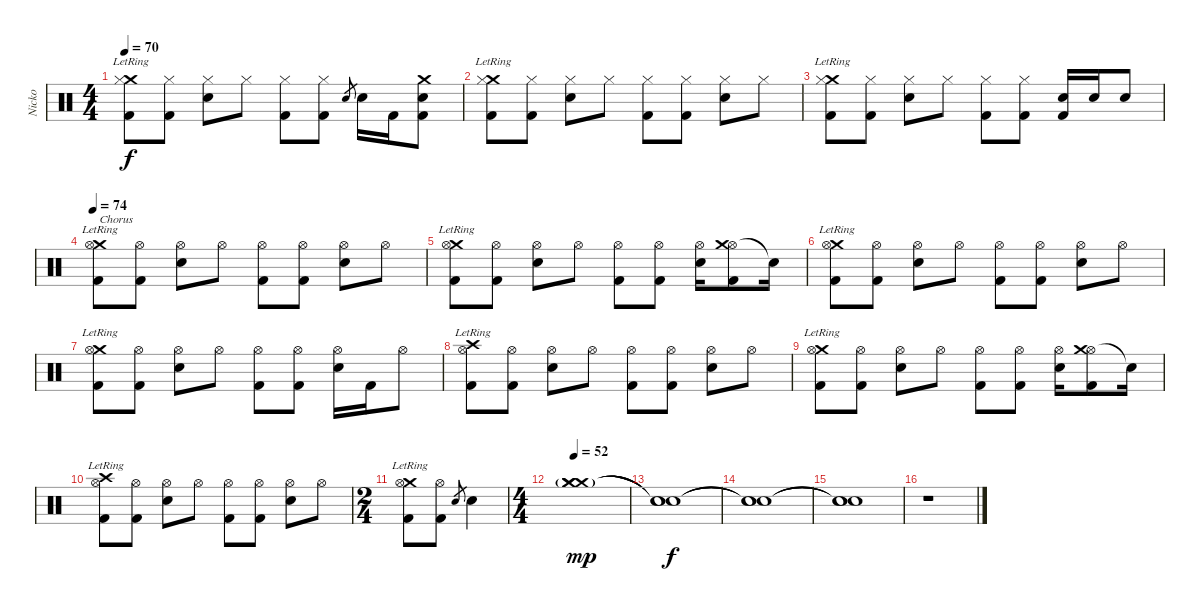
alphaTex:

\track ("Nicko" "Nicko") {instrument percussion}
\staff {score}
\articulation defaults
\ts (4 4)
\tempo 70
\clef neutral
\ks c
("Crash medium (hit)"{lr} "Hi-Hat (closed)" "Kick (hit) 2").8{dy f} ("Hi-Hat (closed)" "Kick (hit) 2").8 ("Hi-Hat (closed)" "Electric Snare (hit)").8 "Hi-Hat (closed)".8 ("Hi-Hat (closed)" "Kick (hit) 2").8 ("Hi-Hat (closed)" "Kick (hit) 2").8 "Electric Snare (hit)".8{gr} "Electric Snare (hit)".16 "Kick (hit) 2".16 ("Electric Snare (hit)" "Crash medium (hit)" "Kick (hit) 2").8 |
("Crash medium (hit)"{lr} "Hi-Hat (closed)" "Kick (hit) 2").8 ("Hi-Hat (closed)" "Kick (hit) 2").8 ("Hi-Hat (closed)" "Electric Snare (hit)").8 "Hi-Hat (closed)".8 ("Hi-Hat (closed)" "Kick (hit) 2").8 ("Hi-Hat (closed)" "Kick (hit) 2").8 ("Hi-Hat (closed)" "Electric Snare (hit)").8 "Hi-Hat (closed)".8 |
("Crash medium (hit)"{lr} "Hi-Hat (closed)" "Kick (hit) 2").8 ("Hi-Hat (closed)" "Kick (hit) 2").8 ("Hi-Hat (closed)" "Electric Snare (hit)").8 "Hi-Hat (closed)".8 ("Hi-Hat (closed)" "Kick (hit) 2").8 ("Hi-Hat (closed)" "Kick (hit) 2").8 ("Electric Snare (hit)" "Kick (hit) 2").16 "Electric Snare (hit)".16 "Electric Snare (hit)".8 |
\tempo 74
("Crash medium (hit)"{lr} "Hi-Hat (open)" "Kick (hit) 2").8{txt "Chorus"} ("Hi-Hat (open)" "Kick (hit) 2").8 ("Hi-Hat (open)" "Electric Snare (hit)").8 "Hi-Hat (open)".8 ("Hi-Hat (open)" "Kick (hit) 2").8 ("Hi-Hat (open)" "Kick (hit) 2").8 ("Hi-Hat (open)" "Electric Snare (hit)").8 "Hi-Hat (open)".8 |
("Crash medium (hit)"{lr} "Hi-Hat (open)" "Kick (hit) 2").8 ("Hi-Hat (open)" "Kick (hit) 2").8 ("Hi-Hat (open)" "Electric Snare (hit)").8 "Hi-Hat (open)".8 ("Hi-Hat (open)" "Kick (hit) 2").8 ("Hi-Hat (open)" "Kick (hit) 2").8 ("Hi-Hat (open)" "Electric Snare (hit)").16 ("Hi-Hat (open)" "Crash medium (hit)" "Kick (hit) 2").8 "Snare (hit)"{t}.16 |
("Crash medium (hit)"{lr} "Hi-Hat (open)" "Kick (hit) 2").8 ("Hi-Hat (open)" "Kick (hit) 2").8 ("Hi-Hat (open)" "Electric Snare (hit)").8 "Hi-Hat (open)".8 ("Hi-Hat (open)" "Kick (hit) 2").8 ("Hi-Hat (open)" "Kick (hit) 2").8 ("Hi-Hat (open)" "Electric Snare (hit)").8 "Hi-Hat (open)".8 |
("Crash medium (hit)"{lr} "Hi-Hat (open)" "Kick (hit) 2").8 ("Hi-Hat (open)" "Kick (hit) 2").8 ("Hi-Hat (open)" "Electric Snare (hit)").8 "Hi-Hat (open)".8 ("Hi-Hat (open)" "Kick (hit) 2").8 ("Hi-Hat (open)" "Kick (hit) 2").8 ("Hi-Hat (open)" "Electric Snare (hit)").16 "Kick (hit) 2".16 "Hi-Hat (open)".8 |
("Crash high (hit)"{lr} "Hi-Hat (open)" "Kick (hit) 2").8 ("Hi-Hat (open)" "Kick (hit) 2").8 ("Hi-Hat (open)" "Electric Snare (hit)").8 "Hi-Hat (open)".8 ("Hi-Hat (open)" "Kick (hit) 2").8 ("Hi-Hat (open)" "Kick (hit) 2").8 ("Hi-Hat (open)" "Electric Snare (hit)").8 "Hi-Hat (open)".8 |
("Crash medium (hit)"{lr} "Hi-Hat (open)" "Kick (hit) 2").8 ("Hi-Hat (open)" "Kick (hit) 2").8 ("Hi-Hat (open)" "Electric Snare (hit)").8 "Hi-Hat (open)".8 ("Hi-Hat (open)" "Kick (hit) 2").8 ("Hi-Hat (open)" "Kick (hit) 2").8 ("Hi-Hat (open)" "Electric Snare (hit)").16 ("Hi-Hat (open)" "Crash medium (hit)" "Kick (hit) 2").8 "Snare (hit)"{t}.16 |
("Crash high (hit)"{lr} "Hi-Hat (open)" "Kick (hit) 2").8 ("Hi-Hat (open)" "Kick (hit) 2").8 ("Hi-Hat (open)" "Electric Snare (hit)").8 "Hi-Hat (open)".8 ("Hi-Hat (open)" "Kick (hit) 2").8 ("Hi-Hat (open)" "Kick (hit) 2").8 ("Hi-Hat (open)" "Electric Snare (hit)").8 "Hi-Hat (open)".8 |
\ts (2 4)
("Crash medium (hit)"{lr} "Hi-Hat (open)" "Kick (hit) 2").8 ("Hi-Hat (open)" "Kick (hit) 2").8 "Electric Snare (hit)".8{gr} "Electric Snare (hit)".4 |
\ts (4 4)
\tempo 52
("Crash medium (hit)" "Crash medium (hit)"{g} "Crash medium (hit)"{g}).1{bd 120 dy mp} |
("Snare (hit)"{t} "Snare (hit)"{t} "Snare (hit)"{t}).1{dy f} |
("Snare (hit)"{t} "Snare (hit)"{t} "Snare (hit)"{t}).1 |
("Snare (hit)"{t} "Snare (hit)"{t} "Snare (hit)"{t}).1 |
r.1
